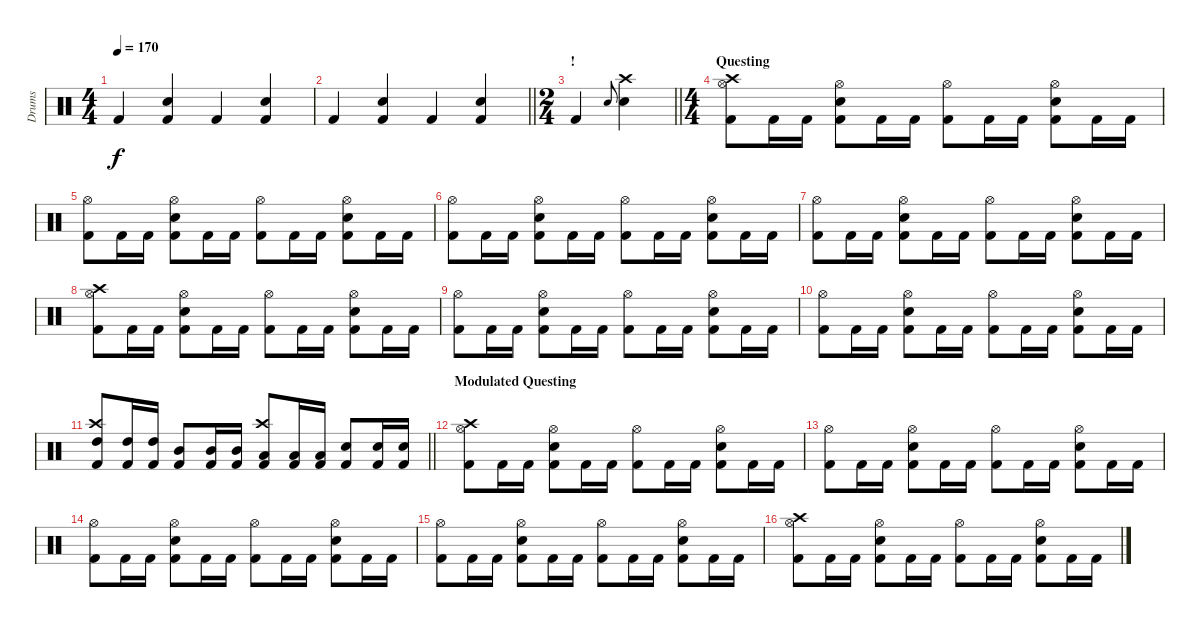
\track ("Drums" "Drums") {instrument percussion}
\staff {score}
\articulation defaults
\ts (4 4)
\tempo 170
\clef neutral
\ks c "Kick (hit) 2".4{dy f}
("Snare (hit) 2" "Kick (hit) 2").4 "Kick (hit) 2".4 ("Snare (hit) 2" "Kick (hit) 2").4 |
\barLineRight lightlight "Kick (hit) 2".4
("Snare (hit) 2" "Kick (hit) 2").4 "Kick (hit) 2".4 ("Snare (hit) 2" "Kick (hit) 2").4 |
\ts (2 4)
\section ("" "!")
\barLineRight lightlight "Kick (hit) 2".4 "Snare (hit) 2".8{gr onbeat}
("Crash high (hit)" "Snare (hit) 2").4 |
\ts (4 4)
\section ("" "Questing")
("Crash high (hit)" "Hi-Hat (open)" "Kick (hit) 2").8 "Kick (hit) 2".16 "Kick (hit) 2".16 ("Hi-Hat (open)" "Snare (hit) 2" "Kick (hit) 2").8 "Kick (hit) 2".16 "Kick (hit) 2".16 ("Hi-Hat (open)" "Kick (hit) 2").8 "Kick (hit) 2".16 "Kick (hit) 2".16 ("Hi-Hat (open)" "Snare (hit) 2" "Kick (hit) 2").8 "Kick (hit) 2".16 "Kick (hit) 2".16 |
("Hi-Hat (open)" "Kick (hit) 2").8 "Kick (hit) 2".16 "Kick (hit) 2".16 ("Hi-Hat (open)" "Snare (hit) 2" "Kick (hit) 2").8 "Kick (hit) 2".16 "Kick (hit) 2".16 ("Hi-Hat (open)" "Kick (hit) 2").8 "Kick (hit) 2".16 "Kick (hit) 2".16 ("Hi-Hat (open)" "Snare (hit) 2" "Kick (hit) 2").8 "Kick (hit) 2".16 "Kick (hit) 2".16 |
("Hi-Hat (open)" "Kick (hit) 2").8 "Kick (hit) 2".16 "Kick (hit) 2".16 ("Hi-Hat (open)" "Snare (hit) 2" "Kick (hit) 2").8 "Kick (hit) 2".16 "Kick (hit) 2".16 ("Hi-Hat (open)" "Kick (hit) 2").8 "Kick (hit) 2".16 "Kick (hit) 2".16 ("Hi-Hat (open)" "Snare (hit) 2" "Kick (hit) 2").8 "Kick (hit) 2".16 "Kick (hit) 2".16 |
("Hi-Hat (open)" "Kick (hit) 2").8 "Kick (hit) 2".16 "Kick (hit) 2".16 ("Hi-Hat (open)" "Snare (hit) 2" "Kick (hit) 2").8 "Kick (hit) 2".16 "Kick (hit) 2".16 ("Hi-Hat (open)" "Kick (hit) 2").8 "Kick (hit) 2".16 "Kick (hit) 2".16 ("Hi-Hat (open)" "Snare (hit) 2" "Kick (hit) 2").8 "Kick (hit) 2".16 "Kick (hit) 2".16 |
("Crash high (hit)" "Hi-Hat (open)" "Kick (hit) 2").8 "Kick (hit) 2".16 "Kick (hit) 2".16 ("Hi-Hat (open)" "Snare (hit) 2" "Kick (hit) 2").8 "Kick (hit) 2".16 "Kick (hit) 2".16 ("Hi-Hat (open)" "Kick (hit) 2").8 "Kick (hit) 2".16 "Kick (hit) 2".16 ("Hi-Hat (open)" "Snare (hit) 2" "Kick (hit) 2").8 "Kick (hit) 2".16 "Kick (hit) 2".16 |
("Hi-Hat (open)" "Kick (hit) 2").8 "Kick (hit) 2".16 "Kick (hit) 2".16 ("Hi-Hat (open)" "Snare (hit) 2" "Kick (hit) 2").8 "Kick (hit) 2".16 "Kick (hit) 2".16 ("Hi-Hat (open)" "Kick (hit) 2").8 "Kick (hit) 2".16 "Kick (hit) 2".16 ("Hi-Hat (open)" "Snare (hit) 2" "Kick (hit) 2").8 "Kick (hit) 2".16 "Kick (hit) 2".16 |
("Hi-Hat (open)" "Kick (hit) 2").8 "Kick (hit) 2".16 "Kick (hit) 2".16 ("Hi-Hat (open)" "Snare (hit) 2" "Kick (hit) 2").8 "Kick (hit) 2".16 "Kick (hit) 2".16 ("Hi-Hat (open)" "Kick (hit) 2").8 "Kick (hit) 2".16 "Kick (hit) 2".16 ("Hi-Hat (open)" "Snare (hit) 2" "Kick (hit) 2").8 "Kick (hit) 2".16 "Kick (hit) 2".16 |
\barLineRight lightlight
("Crash high (hit)" "High Tom (hit)" "Kick (hit) 2").8 ("High Tom (hit)" "Kick (hit) 2").16 ("High Tom (hit)" "Kick (hit) 2").16 ("Mid Tom (hit)" "Kick (hit) 2").8 ("Mid Tom (hit)" "Kick (hit) 2").16 ("Mid Tom (hit)" "Kick (hit) 2").16 ("Crash high (hit)" "Low Tom (hit)" "Kick (hit) 2").8 ("Low Tom (hit)" "Kick (hit) 2").16 ("Low Tom (hit)" "Kick (hit) 2").16 ("Snare (hit) 2" "Kick (hit) 2").8 ("Snare (hit) 2" "Kick (hit) 2").16 ("Snare (hit) 2" "Kick (hit) 2").16 |
\section ("" "Modulated Questing")
("Crash high (hit)" "Hi-Hat (open)" "Kick (hit) 2").8 "Kick (hit) 2".16 "Kick (hit) 2".16 ("Hi-Hat (open)" "Snare (hit) 2" "Kick (hit) 2").8 "Kick (hit) 2".16 "Kick (hit) 2".16 ("Hi-Hat (open)" "Kick (hit) 2").8 "Kick (hit) 2".16 "Kick (hit) 2".16 ("Hi-Hat (open)" "Snare (hit) 2" "Kick (hit) 2").8 "Kick (hit) 2".16 "Kick (hit) 2".16 |
("Hi-Hat (open)" "Kick (hit) 2").8 "Kick (hit) 2".16 "Kick (hit) 2".16 ("Hi-Hat (open)" "Snare (hit) 2" "Kick (hit) 2").8 "Kick (hit) 2".16 "Kick (hit) 2".16 ("Hi-Hat (open)" "Kick (hit) 2").8 "Kick (hit) 2".16 "Kick (hit) 2".16 ("Hi-Hat (open)" "Snare (hit) 2" "Kick (hit) 2").8 "Kick (hit) 2".16 "Kick (hit) 2".16 |
("Hi-Hat (open)" "Kick (hit) 2").8 "Kick (hit) 2".16 "Kick (hit) 2".16 ("Hi-Hat (open)" "Snare (hit) 2" "Kick (hit) 2").8 "Kick (hit) 2".16 "Kick (hit) 2".16 ("Hi-Hat (open)" "Kick (hit) 2").8 "Kick (hit) 2".16 "Kick (hit) 2".16 ("Hi-Hat (open)" "Snare (hit) 2" "Kick (hit) 2").8 "Kick (hit) 2".16 "Kick (hit) 2".16 |
("Hi-Hat (open)" "Kick (hit) 2").8 "Kick (hit) 2".16 "Kick (hit) 2".16 ("Hi-Hat (open)" "Snare (hit) 2" "Kick (hit) 2").8 "Kick (hit) 2".16 "Kick (hit) 2".16 ("Hi-Hat (open)" "Kick (hit) 2").8 "Kick (hit) 2".16 "Kick (hit) 2".16 ("Hi-Hat (open)" "Snare (hit) 2" "Kick (hit) 2").8 "Kick (hit) 2".16 "Kick (hit) 2".16 |
("Crash high (hit)" "Hi-Hat (open)" "Kick (hit) 2").8 "Kick (hit) 2".16 "Kick (hit) 2".16 ("Hi-Hat (open)" "Snare (hit) 2" "Kick (hit) 2").8 "Kick (hit) 2".16 "Kick (hit) 2".16 ("Hi-Hat (open)" "Kick (hit) 2").8 "Kick (hit) 2".16 "Kick (hit) 2".16 ("Hi-Hat (open)" "Snare (hit) 2" "Kick (hit) 2").8 "Kick (hit) 2".16 "Kick (hit) 2".16
